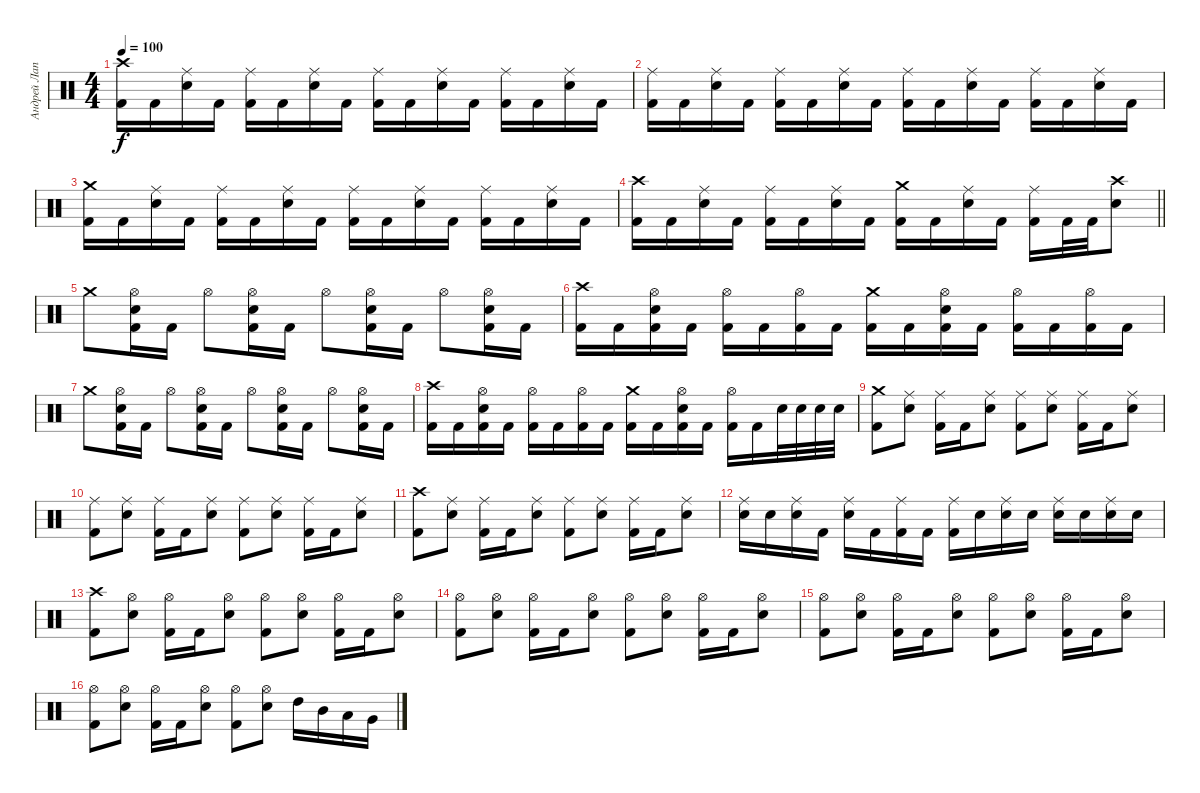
\track ("Андрей Лаптев" "Андрей Лап") {instrument percussion}
\staff {score}
\articulation defaults
\ts (4 4)
\tempo 100
\clef neutral
\ks c
("Crash high (hit)" "Kick (hit) 2").16{dy f} "Kick (hit) 2".16 ("Ride (middle)" "Snare (hit) 2").16 "Kick (hit) 2".16 ("Ride (middle)" "Kick (hit) 2").16 "Kick (hit) 2".16 ("Ride (middle)" "Snare (hit) 2").16 "Kick (hit) 2".16 ("Ride (middle)" "Kick (hit) 2").16 "Kick (hit) 2".16 ("Ride (middle)" "Snare (hit) 2").16 "Kick (hit) 2".16 ("Ride (middle)" "Kick (hit) 2").16 "Kick (hit) 2".16 ("Ride (middle)" "Snare (hit) 2").16 "Kick (hit) 2".16 |
("Ride (middle)" "Kick (hit) 2").16 "Kick (hit) 2".16 ("Ride (middle)" "Snare (hit) 2").16 "Kick (hit) 2".16 ("Ride (middle)" "Kick (hit) 2").16 "Kick (hit) 2".16 ("Ride (middle)" "Snare (hit) 2").16 "Kick (hit) 2".16 ("Ride (middle)" "Kick (hit) 2").16 "Kick (hit) 2".16 ("Ride (middle)" "Snare (hit) 2").16 "Kick (hit) 2".16 ("Ride (middle)" "Kick (hit) 2").16 "Kick (hit) 2".16 ("Ride (middle)" "Snare (hit) 2").16 "Kick (hit) 2".16 |
("Crash medium (hit)" "Kick (hit) 2").16 "Kick (hit) 2".16 ("Ride (middle)" "Snare (hit) 2").16 "Kick (hit) 2".16 ("Ride (middle)" "Kick (hit) 2").16 "Kick (hit) 2".16 ("Ride (middle)" "Snare (hit) 2").16 "Kick (hit) 2".16 ("Ride (middle)" "Kick (hit) 2").16 "Kick (hit) 2".16 ("Ride (middle)" "Snare (hit) 2").16 "Kick (hit) 2".16 ("Ride (middle)" "Kick (hit) 2").16 "Kick (hit) 2".16 ("Ride (middle)" "Snare (hit) 2").16 "Kick (hit) 2".16 |
\barLineRight lightlight
("Crash high (hit)" "Kick (hit) 2").16 "Kick (hit) 2".16 ("Ride (middle)" "Snare (hit) 2").16 "Kick (hit) 2".16 ("Ride (middle)" "Kick (hit) 2").16 "Kick (hit) 2".16 ("Ride (middle)" "Snare (hit) 2").16 "Kick (hit) 2".16 ("Crash medium (hit)" "Kick (hit) 2").16 "Kick (hit) 2".16 ("Ride (middle)" "Snare (hit) 2").16 "Kick (hit) 2".16 ("Ride (middle)" "Kick (hit) 2").16 "Kick (hit) 2".32 "Kick (hit) 2".32 ("Crash high (hit)" "Snare (hit) 2").8 |
"Crash medium (hit)".8 ("Hi-Hat (open)" "Snare (hit) 2" "Kick (hit) 2").16 "Kick (hit) 2".16 "Hi-Hat (open)".8 ("Hi-Hat (open)" "Snare (hit) 2" "Kick (hit) 2").16 "Kick (hit) 2".16 "Hi-Hat (open)".8 ("Hi-Hat (open)" "Snare (hit) 2" "Kick (hit) 2").16 "Kick (hit) 2".16 "Hi-Hat (open)".8 ("Hi-Hat (open)" "Snare (hit) 2" "Kick (hit) 2").16 "Kick (hit) 2".16 |
("Crash high (hit)" "Kick (hit) 2").16 "Kick (hit) 2".16 ("Hi-Hat (open)" "Snare (hit) 2" "Kick (hit) 2").16 "Kick (hit) 2".16 ("Hi-Hat (open)" "Kick (hit) 2").16 "Kick (hit) 2".16 ("Hi-Hat (open)" "Kick (hit) 2").16 "Kick (hit) 2".16 ("Crash medium (hit)" "Kick (hit) 2").16 "Kick (hit) 2".16 ("Hi-Hat (open)" "Snare (hit) 2" "Kick (hit) 2").16 "Kick (hit) 2".16 ("Hi-Hat (open)" "Kick (hit) 2").16 "Kick (hit) 2".16 ("Hi-Hat (open)" "Kick (hit) 2").16 "Kick (hit) 2".16 |
"Crash medium (hit)".8 ("Hi-Hat (open)" "Snare (hit) 2" "Kick (hit) 2").16 "Kick (hit) 2".16 "Hi-Hat (open)".8 ("Hi-Hat (open)" "Snare (hit) 2" "Kick (hit) 2").16 "Kick (hit) 2".16 "Hi-Hat (open)".8 ("Hi-Hat (open)" "Snare (hit) 2" "Kick (hit) 2").16 "Kick (hit) 2".16 "Hi-Hat (open)".8 ("Hi-Hat (open)" "Snare (hit) 2" "Kick (hit) 2").16 "Kick (hit) 2".16 |
("Crash high (hit)" "Kick (hit) 2").16 "Kick (hit) 2".16 ("Hi-Hat (open)" "Snare (hit) 2" "Kick (hit) 2").16 "Kick (hit) 2".16 ("Hi-Hat (open)" "Kick (hit) 2").16 "Kick (hit) 2".16 ("Hi-Hat (open)" "Kick (hit) 2").16 "Kick (hit) 2".16 ("Crash medium (hit)" "Kick (hit) 2").16 "Kick (hit) 2".16 ("Hi-Hat (open)" "Snare (hit) 2" "Kick (hit) 2").16 "Kick (hit) 2".16 ("Hi-Hat (open)" "Kick (hit) 2").16 "Kick (hit) 2".16 "Snare (hit) 2".32 "Snare (hit) 2".32 "Snare (hit) 2".32 "Snare (hit) 2".32 |
("Crash medium (hit)" "Kick (hit) 2").8 ("Ride (middle)" "Snare (hit) 2").8 ("Ride (middle)" "Kick (hit) 2").16 "Kick (hit) 2".16 ("Ride (middle)" "Snare (hit) 2").8 ("Ride (middle)" "Kick (hit) 2").8 ("Ride (middle)" "Snare (hit) 2").8 ("Ride (middle)" "Kick (hit) 2").16 "Kick (hit) 2".16 ("Ride (middle)" "Snare (hit) 2").8 |
("Ride (middle)" "Kick (hit) 2").8 ("Ride (middle)" "Snare (hit) 2").8 ("Ride (middle)" "Kick (hit) 2").16 "Kick (hit) 2".16 ("Ride (middle)" "Snare (hit) 2").8 ("Ride (middle)" "Kick (hit) 2").8 ("Ride (middle)" "Snare (hit) 2").8 ("Ride (middle)" "Kick (hit) 2").16 "Kick (hit) 2".16 ("Ride (middle)" "Snare (hit) 2").8 |
("Crash high (hit)" "Kick (hit) 2").8 ("Ride (middle)" "Snare (hit) 2").8 ("Ride (middle)" "Kick (hit) 2").16 "Kick (hit) 2".16 ("Ride (middle)" "Snare (hit) 2").8 ("Ride (middle)" "Kick (hit) 2").8 ("Ride (middle)" "Snare (hit) 2").8 ("Ride (middle)" "Kick (hit) 2").16 "Kick (hit) 2".16 ("Ride (middle)" "Snare (hit) 2").8 |
("Ride (middle)" "Snare (hit) 2").16 "Snare (hit) 2".16 ("Ride (middle)" "Snare (hit) 2").16 "Kick (hit) 2".16 ("Ride (middle)" "Snare (hit) 2").16 "Kick (hit) 2".16 ("Ride (middle)" "Kick (hit) 2").16 "Kick (hit) 2".16 ("Ride (middle)" "Kick (hit) 2").16 "Snare (hit) 2".16 ("Ride (middle)" "Snare (hit) 2").16 "Snare (hit) 2".16 ("Ride (middle)" "Snare (hit) 2").16 "Snare (hit) 2".16 ("Ride (middle)" "Snare (hit) 2").16 "Snare (hit) 2".16 |
("Crash high (hit)" "Kick (hit) 2").8 ("Hi-Hat (open)" "Snare (hit) 2").8 ("Hi-Hat (open)" "Kick (hit) 2").16 "Kick (hit) 2".16 ("Hi-Hat (open)" "Snare (hit) 2").8 ("Hi-Hat (open)" "Kick (hit) 2").8 ("Hi-Hat (open)" "Snare (hit) 2").8 ("Hi-Hat (open)" "Kick (hit) 2").16 "Kick (hit) 2".16 ("Hi-Hat (open)" "Snare (hit) 2").8 |
("Hi-Hat (open)" "Kick (hit) 2").8 ("Hi-Hat (open)" "Snare (hit) 2").8 ("Hi-Hat (open)" "Kick (hit) 2").16 "Kick (hit) 2".16 ("Hi-Hat (open)" "Snare (hit) 2").8 ("Hi-Hat (open)" "Kick (hit) 2").8 ("Hi-Hat (open)" "Snare (hit) 2").8 ("Hi-Hat (open)" "Kick (hit) 2").16 "Kick (hit) 2".16 ("Hi-Hat (open)" "Snare (hit) 2").8 |
("Hi-Hat (open)" "Kick (hit) 2").8 ("Hi-Hat (open)" "Snare (hit) 2").8 ("Hi-Hat (open)" "Kick (hit) 2").16 "Kick (hit) 2".16 ("Hi-Hat (open)" "Snare (hit) 2").8 ("Hi-Hat (open)" "Kick (hit) 2").8 ("Hi-Hat (open)" "Snare (hit) 2").8 ("Hi-Hat (open)" "Kick (hit) 2").16 "Kick (hit) 2".16 ("Hi-Hat (open)" "Snare (hit) 2").8 |
("Hi-Hat (open)" "Kick (hit) 2").8 ("Hi-Hat (open)" "Snare (hit) 2").8 ("Hi-Hat (open)" "Kick (hit) 2").16 "Kick (hit) 2".16 ("Hi-Hat (open)" "Snare (hit) 2").8 ("Hi-Hat (open)" "Kick (hit) 2").8 ("Hi-Hat (open)" "Snare (hit) 2").8 "High Tom (hit)".16 "Mid Tom (hit)".16 "Low Tom (hit)".16 "Very Low Tom (hit)".16
